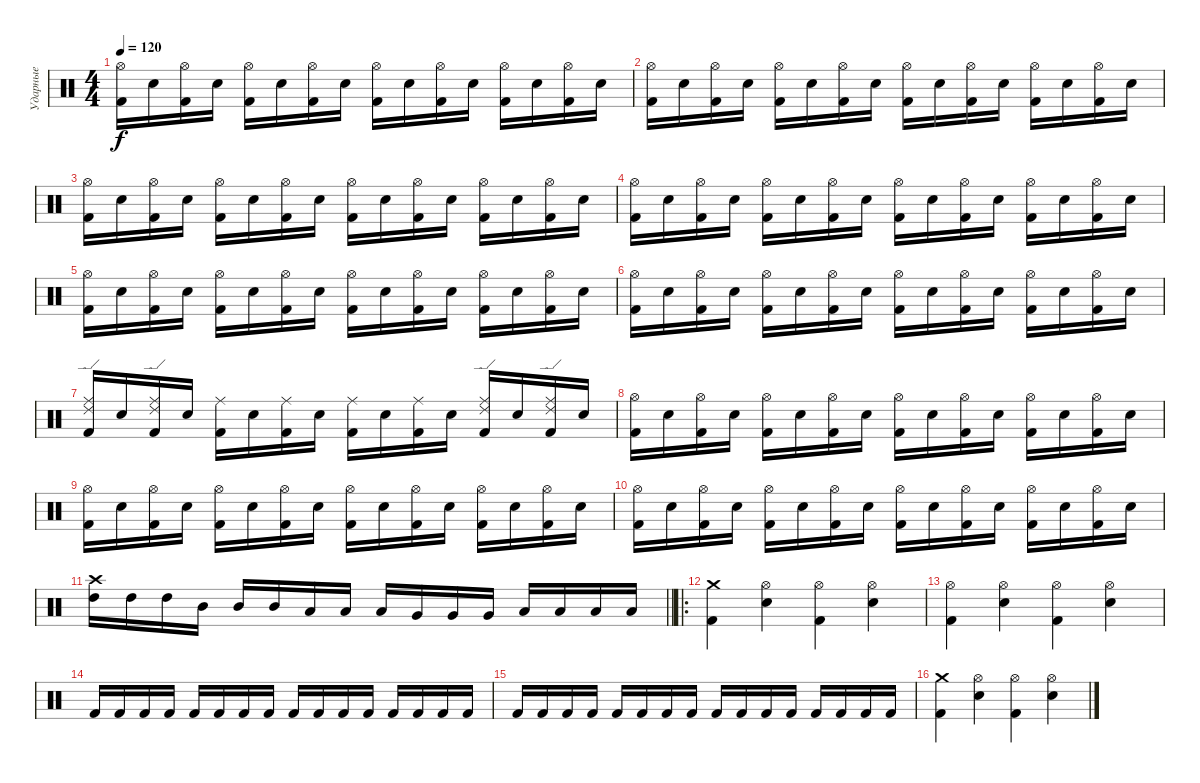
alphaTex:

\track ("Ударные" "Ударные") {instrument percussion}
\staff {score}
\articulation defaults
\ts (4 4)
\tempo 120
\clef neutral
\ks c
("Kick (hit) 2" "Hi-Hat (open)").16{dy f} "Electric Snare (hit)".16 ("Kick (hit) 2" "Hi-Hat (open)").16 "Electric Snare (hit)".16 ("Kick (hit) 2" "Hi-Hat (open)").16 "Electric Snare (hit)".16 ("Kick (hit) 2" "Hi-Hat (open)").16 "Electric Snare (hit)".16 ("Kick (hit) 2" "Hi-Hat (open)").16 "Electric Snare (hit)".16 ("Kick (hit) 2" "Hi-Hat (open)").16 "Electric Snare (hit)".16 ("Kick (hit) 2" "Hi-Hat (open)").16 "Electric Snare (hit)".16 ("Kick (hit) 2" "Hi-Hat (open)").16 "Electric Snare (hit)".16 |
("Kick (hit) 2" "Hi-Hat (open)").16 "Electric Snare (hit)".16 ("Kick (hit) 2" "Hi-Hat (open)").16 "Electric Snare (hit)".16 ("Kick (hit) 2" "Hi-Hat (open)").16 "Electric Snare (hit)".16 ("Kick (hit) 2" "Hi-Hat (open)").16 "Electric Snare (hit)".16 ("Kick (hit) 2" "Hi-Hat (open)").16 "Electric Snare (hit)".16 ("Kick (hit) 2" "Hi-Hat (open)").16 "Electric Snare (hit)".16 ("Kick (hit) 2" "Hi-Hat (open)").16 "Electric Snare (hit)".16 ("Kick (hit) 2" "Hi-Hat (open)").16 "Electric Snare (hit)".16 |
("Kick (hit) 2" "Hi-Hat (open)").16 "Electric Snare (hit)".16 ("Kick (hit) 2" "Hi-Hat (open)").16 "Electric Snare (hit)".16 ("Kick (hit) 2" "Hi-Hat (open)").16 "Electric Snare (hit)".16 ("Kick (hit) 2" "Hi-Hat (open)").16 "Electric Snare (hit)".16 ("Kick (hit) 2" "Hi-Hat (open)").16 "Electric Snare (hit)".16 ("Kick (hit) 2" "Hi-Hat (open)").16 "Electric Snare (hit)".16 ("Kick (hit) 2" "Hi-Hat (open)").16 "Electric Snare (hit)".16 ("Kick (hit) 2" "Hi-Hat (open)").16 "Electric Snare (hit)".16 |
("Kick (hit) 2" "Hi-Hat (open)").16 "Electric Snare (hit)".16 ("Kick (hit) 2" "Hi-Hat (open)").16 "Electric Snare (hit)".16 ("Kick (hit) 2" "Hi-Hat (open)").16 "Electric Snare (hit)".16 ("Kick (hit) 2" "Hi-Hat (open)").16 "Electric Snare (hit)".16 ("Kick (hit) 2" "Hi-Hat (open)").16 "Electric Snare (hit)".16 ("Kick (hit) 2" "Hi-Hat (open)").16 "Electric Snare (hit)".16 ("Kick (hit) 2" "Hi-Hat (open)").16 "Electric Snare (hit)".16 ("Kick (hit) 2" "Hi-Hat (open)").16 "Electric Snare (hit)".16 |
("Kick (hit) 2" "Hi-Hat (open)").16 "Electric Snare (hit)".16 ("Kick (hit) 2" "Hi-Hat (open)").16 "Electric Snare (hit)".16 ("Kick (hit) 2" "Hi-Hat (open)").16 "Electric Snare (hit)".16 ("Kick (hit) 2" "Hi-Hat (open)").16 "Electric Snare (hit)".16 ("Kick (hit) 2" "Hi-Hat (open)").16 "Electric Snare (hit)".16 ("Kick (hit) 2" "Hi-Hat (open)").16 "Electric Snare (hit)".16 ("Kick (hit) 2" "Hi-Hat (open)").16 "Electric Snare (hit)".16 ("Kick (hit) 2" "Hi-Hat (open)").16 "Electric Snare (hit)".16 |
("Kick (hit) 2" "Hi-Hat (open)").16 "Electric Snare (hit)".16 ("Kick (hit) 2" "Hi-Hat (open)").16 "Electric Snare (hit)".16 ("Kick (hit) 2" "Hi-Hat (open)").16 "Electric Snare (hit)".16 ("Kick (hit) 2" "Hi-Hat (open)").16 "Electric Snare (hit)".16 ("Kick (hit) 2" "Hi-Hat (open)").16 "Electric Snare (hit)".16 ("Kick (hit) 2" "Hi-Hat (open)").16 "Electric Snare (hit)".16 ("Kick (hit) 2" "Hi-Hat (open)").16 "Electric Snare (hit)".16 ("Kick (hit) 2" "Hi-Hat (open)").16 "Electric Snare (hit)".16 |
("Kick (hit) 2" "Ride (middle)" "Ride (edge) 2").16 "Electric Snare (hit)".16 ("Kick (hit) 2" "Ride (middle)" "Ride (edge) 2").16 "Electric Snare (hit)".16 ("Kick (hit) 2" "Ride (middle)").16 "Electric Snare (hit)".16 ("Kick (hit) 2" "Ride (middle)").16 "Electric Snare (hit)".16 ("Kick (hit) 2" "Ride (middle)").16 "Electric Snare (hit)".16 ("Kick (hit) 2" "Ride (middle)").16 "Electric Snare (hit)".16 ("Kick (hit) 2" "Ride (middle)" "Ride (edge) 2").16 "Electric Snare (hit)".16 ("Kick (hit) 2" "Ride (middle)" "Ride (edge) 2").16 "Electric Snare (hit)".16 |
("Kick (hit) 2" "Hi-Hat (open)").16 "Electric Snare (hit)".16 ("Kick (hit) 2" "Hi-Hat (open)").16 "Electric Snare (hit)".16 ("Kick (hit) 2" "Hi-Hat (open)").16 "Electric Snare (hit)".16 ("Kick (hit) 2" "Hi-Hat (open)").16 "Electric Snare (hit)".16 ("Kick (hit) 2" "Hi-Hat (open)").16 "Electric Snare (hit)".16 ("Kick (hit) 2" "Hi-Hat (open)").16 "Electric Snare (hit)".16 ("Kick (hit) 2" "Hi-Hat (open)").16 "Electric Snare (hit)".16 ("Kick (hit) 2" "Hi-Hat (open)").16 "Electric Snare (hit)".16 |
("Kick (hit) 2" "Hi-Hat (open)").16 "Electric Snare (hit)".16 ("Kick (hit) 2" "Hi-Hat (open)").16 "Electric Snare (hit)".16 ("Kick (hit) 2" "Hi-Hat (open)").16 "Electric Snare (hit)".16 ("Kick (hit) 2" "Hi-Hat (open)").16 "Electric Snare (hit)".16 ("Kick (hit) 2" "Hi-Hat (open)").16 "Electric Snare (hit)".16 ("Kick (hit) 2" "Hi-Hat (open)").16 "Electric Snare (hit)".16 ("Kick (hit) 2" "Hi-Hat (open)").16 "Electric Snare (hit)".16 ("Kick (hit) 2" "Hi-Hat (open)").16 "Electric Snare (hit)".16 |
("Kick (hit) 2" "Hi-Hat (open)").16 "Electric Snare (hit)".16 ("Kick (hit) 2" "Hi-Hat (open)").16 "Electric Snare (hit)".16 ("Kick (hit) 2" "Hi-Hat (open)").16 "Electric Snare (hit)".16 ("Kick (hit) 2" "Hi-Hat (open)").16 "Electric Snare (hit)".16 ("Kick (hit) 2" "Hi-Hat (open)").16 "Electric Snare (hit)".16 ("Kick (hit) 2" "Hi-Hat (open)").16 "Electric Snare (hit)".16 ("Kick (hit) 2" "Hi-Hat (open)").16 "Electric Snare (hit)".16 ("Kick (hit) 2" "Hi-Hat (open)").16 "Electric Snare (hit)".16 |
\barLineRight lightlight
("High Tom (hit)" "Crash high (hit)").16 "High Tom (hit)".16 "High Tom (hit)".16 "Mid Tom (hit)".16 "Mid Tom (hit)".16 "Mid Tom (hit)".16 "Low Tom (hit)".16 "Low Tom (hit)".16 "Low Tom (hit)".16 "Very Low Tom (hit)".16 "Very Low Tom (hit)".16 "Very Low Tom (hit)".16 "Low Floor Tom (hit)".16 "Low Floor Tom (hit)".16 "Low Floor Tom (hit)".16 "Low Floor Tom (hit)".16 |
\ro
\section ("" "")
("Kick (hit) 2" "Crash medium (hit)").4 ("Electric Snare (hit)" "Hi-Hat (open)").4 ("Kick (hit) 2" "Hi-Hat (open)").4 ("Electric Snare (hit)" "Hi-Hat (open)").4 |
("Kick (hit) 2" "Hi-Hat (open)").4 ("Electric Snare (hit)" "Hi-Hat (open)").4 ("Kick (hit) 2" "Hi-Hat (open)").4 ("Electric Snare (hit)" "Hi-Hat (open)").4 |
"Kick (hit) 2".16 "Kick (hit) 2".16 "Kick (hit) 2".16 "Kick (hit) 2".16 "Kick (hit) 2".16 "Kick (hit) 2".16 "Kick (hit) 2".16 "Kick (hit) 2".16 "Kick (hit) 2".16 "Kick (hit) 2".16 "Kick (hit) 2".16 "Kick (hit) 2".16 "Kick (hit) 2".16 "Kick (hit) 2".16 "Kick (hit) 2".16 "Kick (hit) 2".16 |
"Kick (hit) 2".16 "Kick (hit) 2".16 "Kick (hit) 2".16 "Kick (hit) 2".16 "Kick (hit) 2".16 "Kick (hit) 2".16 "Kick (hit) 2".16 "Kick (hit) 2".16 "Kick (hit) 2".16 "Kick (hit) 2".16 "Kick (hit) 2".16 "Kick (hit) 2".16 "Kick (hit) 2".16 "Kick (hit) 2".16 "Kick (hit) 2".16 "Kick (hit) 2".16 |
("Kick (hit) 2" "Crash medium (hit)").4 ("Electric Snare (hit)" "Hi-Hat (open)").4 ("Kick (hit) 2" "Hi-Hat (open)").4 ("Electric Snare (hit)" "Hi-Hat (open)").4
